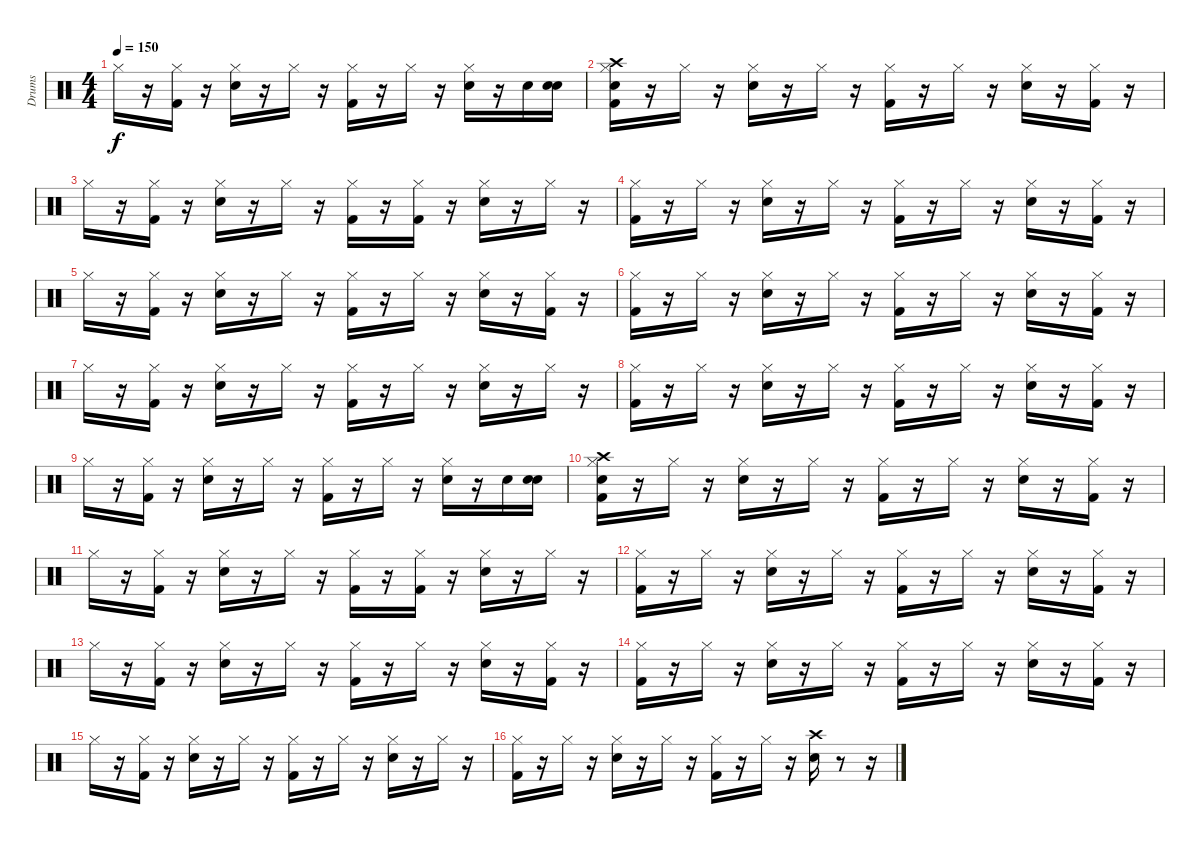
\track ("Drums" "Drums") {instrument percussion}
\staff {score}
\articulation defaults
\ts (4 4)
\tempo 150
\clef neutral
\ks c "Hi-Hat (closed)".16{dy f}
r.16 ("Kick (hit) 2" "Hi-Hat (closed)").16 r.16 ("Snare (hit) 2" "Hi-Hat (closed)").16 r.16 "Hi-Hat (closed)".16 r.16 ("Kick (hit) 2" "Hi-Hat (closed)").16 r.16 "Hi-Hat (closed)".16 r.16 ("Snare (hit) 2" "Hi-Hat (closed)").16 r.16 "Snare (hit) 2".16 ("Snare (hit)" "Snare (hit) 2").16 |
("Snare (hit)" "Crash high (hit)" "Kick (hit) 2" "Hi-Hat (closed)").16 r.16 "Hi-Hat (closed)".16 r.16 ("Snare (hit) 2" "Hi-Hat (closed)").16 r.16 "Hi-Hat (closed)".16 r.16 ("Kick (hit) 2" "Hi-Hat (closed)").16 r.16 "Hi-Hat (closed)".16 r.16 ("Snare (hit) 2" "Hi-Hat (closed)").16 r.16 ("Kick (hit) 2" "Hi-Hat (closed)").16 r.16 |
"Hi-Hat (closed)".16 r.16 ("Kick (hit) 2" "Hi-Hat (closed)").16 r.16 ("Snare (hit) 2" "Hi-Hat (closed)").16 r.16 "Hi-Hat (closed)".16 r.16 ("Kick (hit) 2" "Hi-Hat (closed)").16 r.16 ("Kick (hit) 2" "Hi-Hat (closed)").16 r.16 ("Snare (hit) 2" "Hi-Hat (closed)").16 r.16 "Hi-Hat (closed)".16 r.16 |
("Kick (hit) 2" "Hi-Hat (closed)").16 r.16 "Hi-Hat (closed)".16 r.16 ("Snare (hit) 2" "Hi-Hat (closed)").16 r.16 "Hi-Hat (closed)".16 r.16 ("Kick (hit) 2" "Hi-Hat (closed)").16 r.16 "Hi-Hat (closed)".16 r.16 ("Snare (hit) 2" "Hi-Hat (closed)").16 r.16 ("Kick (hit) 2" "Hi-Hat (closed)").16 r.16 |
"Hi-Hat (closed)".16 r.16 ("Kick (hit) 2" "Hi-Hat (closed)").16 r.16 ("Snare (hit) 2" "Hi-Hat (closed)").16 r.16 "Hi-Hat (closed)".16 r.16 ("Kick (hit) 2" "Hi-Hat (closed)").16 r.16 "Hi-Hat (closed)".16 r.16 ("Snare (hit) 2" "Hi-Hat (closed)").16 r.16 ("Kick (hit) 2" "Hi-Hat (closed)").16 r.16 |
("Kick (hit) 2" "Hi-Hat (closed)").16 r.16 "Hi-Hat (closed)".16 r.16 ("Snare (hit) 2" "Hi-Hat (closed)").16 r.16 "Hi-Hat (closed)".16 r.16 ("Kick (hit) 2" "Hi-Hat (closed)").16 r.16 "Hi-Hat (closed)".16 r.16 ("Snare (hit) 2" "Hi-Hat (closed)").16 r.16 ("Kick (hit) 2" "Hi-Hat (closed)").16 r.16 |
"Hi-Hat (closed)".16 r.16 ("Kick (hit) 2" "Hi-Hat (closed)").16 r.16 ("Snare (hit) 2" "Hi-Hat (closed)").16 r.16 "Hi-Hat (closed)".16 r.16 ("Kick (hit) 2" "Hi-Hat (closed)").16 r.16 "Hi-Hat (closed)".16 r.16 ("Snare (hit) 2" "Hi-Hat (closed)").16 r.16 "Hi-Hat (closed)".16 r.16 |
("Kick (hit) 2" "Hi-Hat (closed)").16 r.16 "Hi-Hat (closed)".16 r.16 ("Snare (hit) 2" "Hi-Hat (closed)").16 r.16 "Hi-Hat (closed)".16 r.16 ("Kick (hit) 2" "Hi-Hat (closed)").16 r.16 "Hi-Hat (closed)".16 r.16 ("Snare (hit) 2" "Hi-Hat (closed)").16 r.16 ("Kick (hit) 2" "Hi-Hat (closed)").16 r.16 |
"Hi-Hat (closed)".16 r.16 ("Kick (hit) 2" "Hi-Hat (closed)").16 r.16 ("Snare (hit) 2" "Hi-Hat (closed)").16 r.16 "Hi-Hat (closed)".16 r.16 ("Kick (hit) 2" "Hi-Hat (closed)").16 r.16 "Hi-Hat (closed)".16 r.16 ("Snare (hit) 2" "Hi-Hat (closed)").16 r.16 "Snare (hit) 2".16 ("Snare (hit)" "Snare (hit) 2").16 |
("Snare (hit)" "Crash high (hit)" "Kick (hit) 2" "Hi-Hat (closed)").16 r.16 "Hi-Hat (closed)".16 r.16 ("Snare (hit) 2" "Hi-Hat (closed)").16 r.16 "Hi-Hat (closed)".16 r.16 ("Kick (hit) 2" "Hi-Hat (closed)").16 r.16 "Hi-Hat (closed)".16 r.16 ("Snare (hit) 2" "Hi-Hat (closed)").16 r.16 ("Kick (hit) 2" "Hi-Hat (closed)").16 r.16 |
"Hi-Hat (closed)".16 r.16 ("Kick (hit) 2" "Hi-Hat (closed)").16 r.16 ("Snare (hit) 2" "Hi-Hat (closed)").16 r.16 "Hi-Hat (closed)".16 r.16 ("Kick (hit) 2" "Hi-Hat (closed)").16 r.16 ("Kick (hit) 2" "Hi-Hat (closed)").16 r.16 ("Snare (hit) 2" "Hi-Hat (closed)").16 r.16 "Hi-Hat (closed)".16 r.16 |
("Kick (hit) 2" "Hi-Hat (closed)").16 r.16 "Hi-Hat (closed)".16 r.16 ("Snare (hit) 2" "Hi-Hat (closed)").16 r.16 "Hi-Hat (closed)".16 r.16 ("Kick (hit) 2" "Hi-Hat (closed)").16 r.16 "Hi-Hat (closed)".16 r.16 ("Snare (hit) 2" "Hi-Hat (closed)").16 r.16 ("Kick (hit) 2" "Hi-Hat (closed)").16 r.16 |
"Hi-Hat (closed)".16 r.16 ("Kick (hit) 2" "Hi-Hat (closed)").16 r.16 ("Snare (hit) 2" "Hi-Hat (closed)").16 r.16 "Hi-Hat (closed)".16 r.16 ("Kick (hit) 2" "Hi-Hat (closed)").16 r.16 "Hi-Hat (closed)".16 r.16 ("Snare (hit) 2" "Hi-Hat (closed)").16 r.16 ("Kick (hit) 2" "Hi-Hat (closed)").16 r.16 |
("Kick (hit) 2" "Hi-Hat (closed)").16 r.16 "Hi-Hat (closed)".16 r.16 ("Snare (hit) 2" "Hi-Hat (closed)").16 r.16 "Hi-Hat (closed)".16 r.16 ("Kick (hit) 2" "Hi-Hat (closed)").16 r.16 "Hi-Hat (closed)".16 r.16 ("Snare (hit) 2" "Hi-Hat (closed)").16 r.16 ("Kick (hit) 2" "Hi-Hat (closed)").16 r.16 |
"Hi-Hat (closed)".16 r.16 ("Kick (hit) 2" "Hi-Hat (closed)").16 r.16 ("Snare (hit) 2" "Hi-Hat (closed)").16 r.16 "Hi-Hat (closed)".16 r.16 ("Kick (hit) 2" "Hi-Hat (closed)").16 r.16 "Hi-Hat (closed)".16 r.16 ("Snare (hit) 2" "Hi-Hat (closed)").16 r.16 "Hi-Hat (closed)".16 r.16 |
("Kick (hit) 2" "Hi-Hat (closed)").16 r.16 "Hi-Hat (closed)".16 r.16 ("Snare (hit) 2" "Hi-Hat (closed)").16 r.16 "Hi-Hat (closed)".16 r.16 ("Kick (hit) 2" "Hi-Hat (closed)").16 r.16 "Hi-Hat (closed)".16 r.16 ("Snare (hit) 2" "Crash high (hit)").16 r.8 r.16
